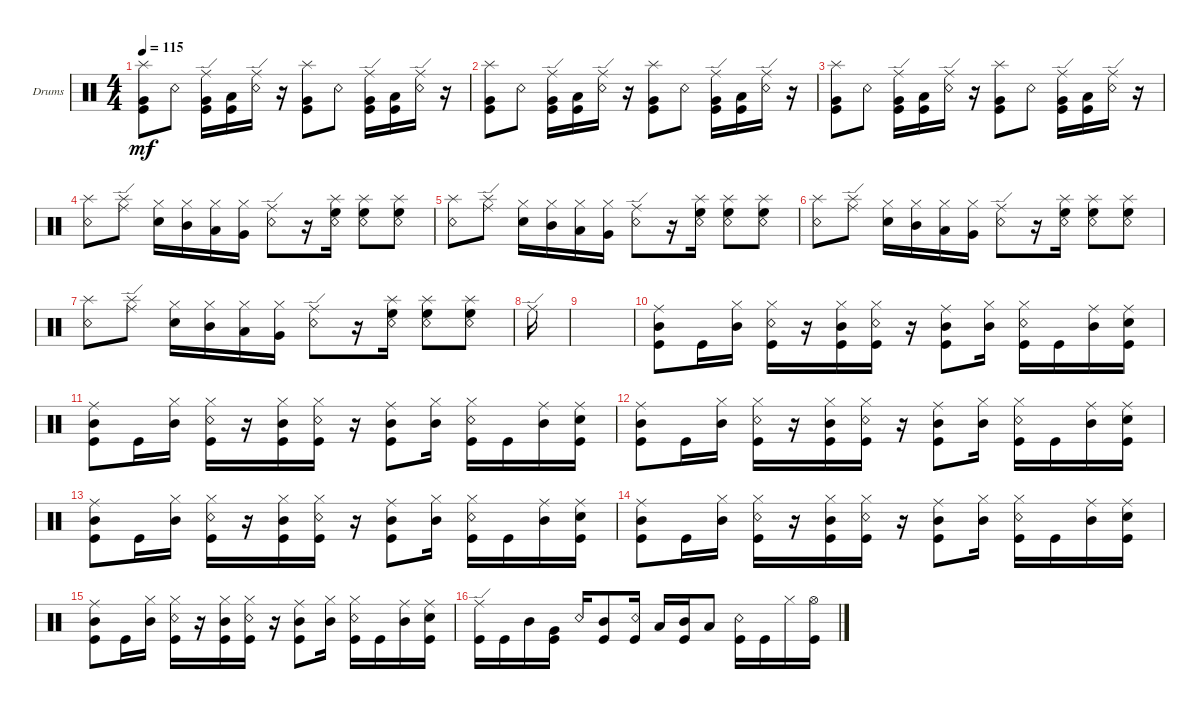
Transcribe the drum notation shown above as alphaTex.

\defaultSystemsLayout 4
\bracketExtendMode groupsimilarinstruments
\firstSystemTrackNameOrientation horizontal
\otherSystemsTrackNameOrientation horizontal
\track ("Drumkit" "Drums") {instrument percussion}
\staff {score}
\articulation defaults
\ts (4 4)
\tempo 115
\clef neutral
\scale
0.333333
\ks c
("Splash (hit)" "Kick (hit)" "Very Low Tom (hit)").8{dy mf} "Snare (rim shot)".8 ("Ride (edge)" "Kick (hit)" "Very Low Tom (hit)").16 ("Kick (hit)" "Low Tom (hit)").16 ("Snare (rim shot)" "Ride (edge)").16 r.16 ("Splash (hit)" "Kick (hit)" "Very Low Tom (hit)").8 "Snare (rim shot)".8 ("Ride (edge)" "Kick (hit)" "Very Low Tom (hit)").16 ("Kick (hit)" "Low Tom (hit)").16 ("Snare (rim shot)" "Ride (edge)").16 r.16 |
\scale
0.333333 ("Splash (hit)" "Kick (hit)" "Very Low Tom (hit)").8 "Snare (rim shot)".8 ("Ride (edge)" "Kick (hit)" "Very Low Tom (hit)").16 ("Kick (hit)" "Low Tom (hit)").16 ("Snare (rim shot)" "Ride (edge)").16 r.16 ("Splash (hit)" "Kick (hit)" "Very Low Tom (hit)").8 "Snare (rim shot)".8 ("Ride (edge)" "Kick (hit)" "Very Low Tom (hit)").16 ("Kick (hit)" "Low Tom (hit)").16 ("Snare (rim shot)" "Ride (edge)").16 r.16 |
\scale
0.333333 ("Splash (hit)" "Kick (hit)" "Very Low Tom (hit)").8 "Snare (rim shot)".8 ("Ride (edge)" "Kick (hit)" "Very Low Tom (hit)").16 ("Kick (hit)" "Low Tom (hit)").16 ("Snare (rim shot)" "Ride (edge)").16 r.16 ("Splash (hit)" "Kick (hit)" "Very Low Tom (hit)").8 "Snare (rim shot)".8 ("Ride (edge)" "Kick (hit)" "Very Low Tom (hit)").16 ("Kick (hit)" "Low Tom (hit)").16 ("Snare (rim shot)" "Ride (edge)").16 r.16 |
\scale
0.333333 ("Snare (rim shot)" "Splash (hit)").8 ("Ride (edge)" "Splash (hit)").8 ("Snare (hit) 2" "Hi-Hat (closed)").16 ("Mid Tom (hit)" "Hi-Hat (closed)").16 ("Low Tom (hit)" "Hi-Hat (closed)").16 ("Hi-Hat (closed)" "Very Low Tom (hit)").16 ("Snare (rim shot)" "Ride (edge)").8 r.16 ("Snare (rim shot)" "High Floor Tom (hit)" "Splash (hit)").16 ("Snare (rim shot)" "High Floor Tom (hit)" "Splash (hit)").8 ("High Floor Tom (hit)" "Snare (rim shot)" "Splash (hit)").8 |
\scale
0.333333 ("Snare (rim shot)" "Splash (hit)").8 ("Ride (edge)" "Splash (hit)").8 ("Snare (hit) 2" "Hi-Hat (closed)").16 ("Mid Tom (hit)" "Hi-Hat (closed)").16 ("Low Tom (hit)" "Hi-Hat (closed)").16 ("Hi-Hat (closed)" "Very Low Tom (hit)").16 ("Snare (rim shot)" "Ride (edge)").8 r.16 ("Snare (rim shot)" "High Floor Tom (hit)" "Splash (hit)").16 ("Snare (rim shot)" "High Floor Tom (hit)" "Splash (hit)").8 ("High Floor Tom (hit)" "Snare (rim shot)" "Splash (hit)").8 |
\scale
0.333333 ("Snare (rim shot)" "Splash (hit)").8 ("Ride (edge)" "Splash (hit)").8 ("Snare (hit) 2" "Hi-Hat (closed)").16 ("Mid Tom (hit)" "Hi-Hat (closed)").16 ("Low Tom (hit)" "Hi-Hat (closed)").16 ("Hi-Hat (closed)" "Very Low Tom (hit)").16 ("Snare (rim shot)" "Ride (edge)").8 r.16 ("Snare (rim shot)" "High Floor Tom (hit)" "Splash (hit)").16 ("Snare (rim shot)" "High Floor Tom (hit)" "Splash (hit)").8 ("High Floor Tom (hit)" "Snare (rim shot)" "Splash (hit)").8 |
\scale
0.333333 ("Snare (rim shot)" "Splash (hit)").8 ("Ride (edge)" "Splash (hit)").8 ("Snare (hit) 2" "Hi-Hat (closed)").16 ("Mid Tom (hit)" "Hi-Hat (closed)").16 ("Low Tom (hit)" "Hi-Hat (closed)").16 ("Hi-Hat (closed)" "Very Low Tom (hit)").16 ("Snare (rim shot)" "Ride (edge)").8 r.16 ("Snare (rim shot)" "High Floor Tom (hit)" "Splash (hit)").16 ("Snare (rim shot)" "High Floor Tom (hit)" "Splash (hit)").8 ("High Floor Tom (hit)" "Snare (rim shot)" "Splash (hit)").8 |
\scale
0.333333 "Ride (edge)".16 |
\scale
0.333333 |
\scale
0.333333 ("Mid Tom (hit)" "Ride (middle)" "Kick (hit)").8 "Kick (hit)".16 ("Mid Tom (hit)" "Hi-Hat (closed)").16 ("Hi-Hat (closed)" "Snare (rim shot)" "Kick (hit)").16 r.16 ("Mid Tom (hit)" "Hi-Hat (closed)" "Kick (hit)").16 ("Hi-Hat (closed)" "Snare (rim shot)" "Kick (hit)").16 r.16 ("Mid Tom (hit)" "Ride (middle)" "Kick (hit)").8 ("Mid Tom (hit)" "Hi-Hat (closed)").16 ("Hi-Hat (closed)" "Snare (rim shot)" "Kick (hit)").16 "Kick (hit)".16 ("Mid Tom (hit)" "Ride (middle)").16 ("Snare (hit) 2" "Ride (middle)" "Kick (hit)").16 |
\scale
0.333333 ("Mid Tom (hit)" "Ride (middle)" "Kick (hit)").8 "Kick (hit)".16 ("Mid Tom (hit)" "Hi-Hat (closed)").16 ("Hi-Hat (closed)" "Snare (rim shot)" "Kick (hit)").16 r.16 ("Mid Tom (hit)" "Hi-Hat (closed)" "Kick (hit)").16 ("Hi-Hat (closed)" "Snare (rim shot)" "Kick (hit)").16 r.16 ("Mid Tom (hit)" "Ride (middle)" "Kick (hit)").8 ("Mid Tom (hit)" "Hi-Hat (closed)").16 ("Hi-Hat (closed)" "Snare (rim shot)" "Kick (hit)").16 "Kick (hit)".16 ("Mid Tom (hit)" "Ride (middle)").16 ("Snare (hit) 2" "Ride (middle)" "Kick (hit)").16 |
\scale
0.333333 ("Mid Tom (hit)" "Ride (middle)" "Kick (hit)").8 "Kick (hit)".16 ("Mid Tom (hit)" "Hi-Hat (closed)").16 ("Hi-Hat (closed)" "Snare (rim shot)" "Kick (hit)").16 r.16 ("Mid Tom (hit)" "Hi-Hat (closed)" "Kick (hit)").16 ("Hi-Hat (closed)" "Snare (rim shot)" "Kick (hit)").16 r.16 ("Mid Tom (hit)" "Ride (middle)" "Kick (hit)").8 ("Mid Tom (hit)" "Hi-Hat (closed)").16 ("Hi-Hat (closed)" "Snare (rim shot)" "Kick (hit)").16 "Kick (hit)".16 ("Mid Tom (hit)" "Ride (middle)").16 ("Snare (hit) 2" "Ride (middle)" "Kick (hit)").16 |
\scale
0.333333 ("Mid Tom (hit)" "Ride (middle)" "Kick (hit)").8 "Kick (hit)".16 ("Mid Tom (hit)" "Hi-Hat (closed)").16 ("Hi-Hat (closed)" "Snare (rim shot)" "Kick (hit)").16 r.16 ("Mid Tom (hit)" "Hi-Hat (closed)" "Kick (hit)").16 ("Hi-Hat (closed)" "Snare (rim shot)" "Kick (hit)").16 r.16 ("Mid Tom (hit)" "Ride (middle)" "Kick (hit)").8 ("Mid Tom (hit)" "Hi-Hat (closed)").16 ("Hi-Hat (closed)" "Snare (rim shot)" "Kick (hit)").16 "Kick (hit)".16 ("Mid Tom (hit)" "Ride (middle)").16 ("Snare (hit) 2" "Ride (middle)" "Kick (hit)").16 |
\scale
0.333333 ("Mid Tom (hit)" "Ride (middle)" "Kick (hit)").8 "Kick (hit)".16 ("Mid Tom (hit)" "Hi-Hat (closed)").16 ("Hi-Hat (closed)" "Snare (rim shot)" "Kick (hit)").16 r.16 ("Mid Tom (hit)" "Hi-Hat (closed)" "Kick (hit)").16 ("Hi-Hat (closed)" "Snare (rim shot)" "Kick (hit)").16 r.16 ("Mid Tom (hit)" "Ride (middle)" "Kick (hit)").8 ("Mid Tom (hit)" "Hi-Hat (closed)").16 ("Hi-Hat (closed)" "Snare (rim shot)" "Kick (hit)").16 "Kick (hit)".16 ("Mid Tom (hit)" "Ride (middle)").16 ("Snare (hit) 2" "Ride (middle)" "Kick (hit)").16 |
\scale
0.333333 ("Mid Tom (hit)" "Ride (middle)" "Kick (hit)").8 "Kick (hit)".16 ("Mid Tom (hit)" "Hi-Hat (closed)").16 ("Hi-Hat (closed)" "Snare (rim shot)" "Kick (hit)").16 r.16 ("Mid Tom (hit)" "Hi-Hat (closed)" "Kick (hit)").16 ("Hi-Hat (closed)" "Snare (rim shot)" "Kick (hit)").16 r.16 ("Mid Tom (hit)" "Ride (middle)" "Kick (hit)").8 ("Mid Tom (hit)" "Hi-Hat (closed)").16 ("Hi-Hat (closed)" "Snare (rim shot)" "Kick (hit)").16 "Kick (hit)".16 ("Mid Tom (hit)" "Ride (middle)").16 ("Snare (hit) 2" "Ride (middle)" "Kick (hit)").16 |
\scale
0.333333 ("Kick (hit)" "Ride (edge)").16 "Kick (hit)".16 "Mid Tom (hit)".16 ("Very Low Tom (hit)" "Kick (hit)").16 "Snare (rim shot)".16 ("Kick (hit)" "Mid Tom (hit)").8 ("Snare (rim shot)" "Kick (hit)").16 "Low Tom (hit)".16 ("Mid Tom (hit)" "Kick (hit)").16 "Low Tom (hit)".8 ("Snare (rim shot)" "Kick (hit)").16 "Kick (hit)".16 "Hi-Hat (closed)".16 ("Hi-Hat (open)" "Kick (hit)").16
